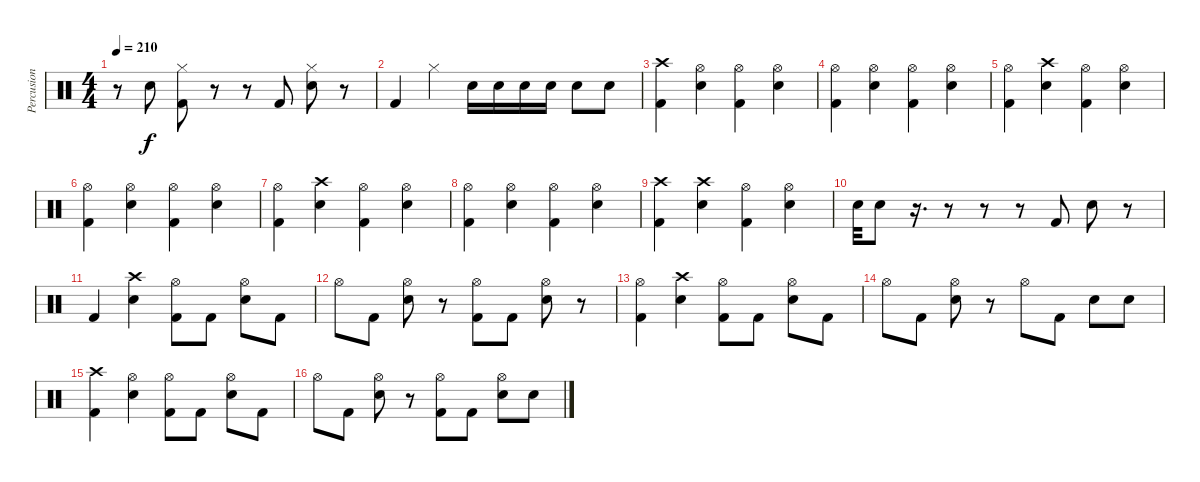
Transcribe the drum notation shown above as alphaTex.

\track ("Percusion" "Percusion") {instrument percussion}
\staff {score}
\articulation defaults
\ts (4 4)
\tempo 210
\clef neutral
\ks c
r.8{dy f} "Snare (hit) 2".8 ("Hi-Hat (closed)" "Kick (hit) 2").8 r.8 r.8 "Kick (hit) 2".8 ("Hi-Hat (closed)" "Snare (hit) 2").8 r.8 |
"Kick (hit) 2".4 "Hi-Hat (closed)".4 "Snare (hit) 2".16 "Snare (hit) 2".16 "Snare (hit) 2".16 "Snare (hit) 2".16 "Snare (hit) 2".8 "Snare (hit) 2".8 |
("Crash high (hit)" "Kick (hit) 2").4 ("Hi-Hat (open)" "Snare (hit) 2").4 ("Hi-Hat (open)" "Kick (hit) 2").4 ("Hi-Hat (open)" "Snare (hit) 2").4 |
("Hi-Hat (open)" "Kick (hit) 2").4 ("Hi-Hat (open)" "Snare (hit) 2").4 ("Hi-Hat (open)" "Kick (hit) 2").4 ("Hi-Hat (open)" "Snare (hit) 2").4 |
("Hi-Hat (open)" "Kick (hit) 2").4 ("Crash high (hit)" "Snare (hit) 2").4 ("Hi-Hat (open)" "Kick (hit) 2").4 ("Hi-Hat (open)" "Snare (hit) 2").4 |
("Hi-Hat (open)" "Kick (hit) 2").4 ("Hi-Hat (open)" "Snare (hit) 2").4 ("Hi-Hat (open)" "Kick (hit) 2").4 ("Hi-Hat (open)" "Snare (hit) 2").4 |
("Hi-Hat (open)" "Kick (hit) 2").4 ("Crash high (hit)" "Snare (hit) 2").4 ("Hi-Hat (open)" "Kick (hit) 2").4 ("Hi-Hat (open)" "Snare (hit) 2").4 |
("Hi-Hat (open)" "Kick (hit) 2").4 ("Hi-Hat (open)" "Snare (hit) 2").4 ("Hi-Hat (open)" "Kick (hit) 2").4 ("Hi-Hat (open)" "Snare (hit) 2").4 |
("Crash high (hit)" "Kick (hit) 2").4 ("Crash high (hit)" "Snare (hit) 2").4 ("Hi-Hat (open)" "Kick (hit) 2").4 ("Hi-Hat (open)" "Snare (hit) 2").4 |
"Snare (hit) 2".32 "Snare (hit) 2".8 r.16{d} r.8 r.8 r.8 "Kick (hit) 2".8 "Snare (hit) 2".8 r.8 |
"Kick (hit) 2".4 ("Crash high (hit)" "Snare (hit) 2").4 ("Hi-Hat (open)" "Kick (hit) 2").8 "Kick (hit) 2".8 ("Hi-Hat (open)" "Snare (hit) 2").8 "Kick (hit) 2".8 |
"Hi-Hat (open)".8 "Kick (hit) 2".8 ("Hi-Hat (open)" "Snare (hit) 2").8 r.8 ("Hi-Hat (open)" "Kick (hit) 2").8 "Kick (hit) 2".8 ("Hi-Hat (open)" "Snare (hit) 2").8 r.8 |
("Hi-Hat (open)" "Kick (hit) 2").4 ("Crash high (hit)" "Snare (hit) 2").4 ("Hi-Hat (open)" "Kick (hit) 2").8 "Kick (hit) 2".8 ("Hi-Hat (open)" "Snare (hit) 2").8 "Kick (hit) 2".8 |
"Hi-Hat (open)".8 "Kick (hit) 2".8 ("Hi-Hat (open)" "Snare (hit) 2").8 r.8 "Hi-Hat (open)".8 "Kick (hit) 2".8 "Snare (hit) 2".8 "Snare (hit) 2".8 |
("Crash high (hit)" "Kick (hit) 2").4 ("Hi-Hat (open)" "Snare (hit) 2").4 ("Hi-Hat (open)" "Kick (hit) 2").8 "Kick (hit) 2".8 ("Hi-Hat (open)" "Snare (hit) 2").8 "Kick (hit) 2".8 |
"Hi-Hat (open)".8 "Kick (hit) 2".8 ("Hi-Hat (open)" "Snare (hit) 2").8 r.8 ("Hi-Hat (open)" "Kick (hit) 2").8 "Kick (hit) 2".8 ("Hi-Hat (open)" "Snare (hit) 2").8 "Snare (hit) 2".8
